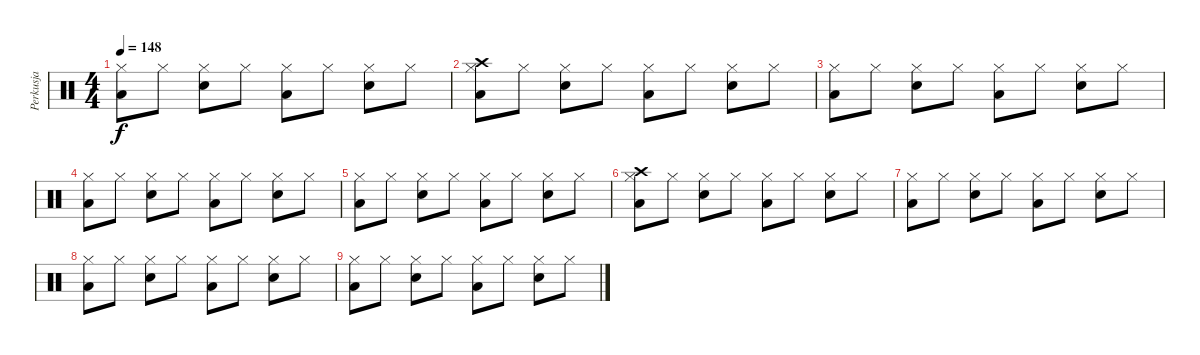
\track ("Perkusja" "Perkusja") {instrument percussion}
\staff {score}
\articulation defaults
\ts (4 4)
\tempo 148
\clef neutral
\ks c
("Low Tom (hit)" "Hi-Hat (closed)").8{dy f} "Hi-Hat (closed)".8 ("Electric Snare (hit)" "Hi-Hat (closed)").8 "Hi-Hat (closed)".8 ("Low Tom (hit)" "Hi-Hat (closed)").8 "Hi-Hat (closed)".8 ("Electric Snare (hit)" "Hi-Hat (closed)").8 "Hi-Hat (closed)".8 |
("Crash high (hit)" "Low Tom (hit)" "Hi-Hat (closed)").8 "Hi-Hat (closed)".8 ("Electric Snare (hit)" "Hi-Hat (closed)").8 "Hi-Hat (closed)".8 ("Low Tom (hit)" "Hi-Hat (closed)").8 "Hi-Hat (closed)".8 ("Electric Snare (hit)" "Hi-Hat (closed)").8 "Hi-Hat (closed)".8 |
("Low Tom (hit)" "Hi-Hat (closed)").8 "Hi-Hat (closed)".8 ("Electric Snare (hit)" "Hi-Hat (closed)").8 "Hi-Hat (closed)".8 ("Low Tom (hit)" "Hi-Hat (closed)").8 "Hi-Hat (closed)".8 ("Electric Snare (hit)" "Hi-Hat (closed)").8 "Hi-Hat (closed)".8 |
("Low Tom (hit)" "Hi-Hat (closed)").8 "Hi-Hat (closed)".8 ("Electric Snare (hit)" "Hi-Hat (closed)").8 "Hi-Hat (closed)".8 ("Low Tom (hit)" "Hi-Hat (closed)").8 "Hi-Hat (closed)".8 ("Electric Snare (hit)" "Hi-Hat (closed)").8 "Hi-Hat (closed)".8 |
("Low Tom (hit)" "Hi-Hat (closed)").8 "Hi-Hat (closed)".8 ("Electric Snare (hit)" "Hi-Hat (closed)").8 "Hi-Hat (closed)".8 ("Low Tom (hit)" "Hi-Hat (closed)").8 "Hi-Hat (closed)".8 ("Electric Snare (hit)" "Hi-Hat (closed)").8 "Hi-Hat (closed)".8 |
("Crash high (hit)" "Low Tom (hit)" "Hi-Hat (closed)").8 "Hi-Hat (closed)".8 ("Electric Snare (hit)" "Hi-Hat (closed)").8 "Hi-Hat (closed)".8 ("Low Tom (hit)" "Hi-Hat (closed)").8 "Hi-Hat (closed)".8 ("Electric Snare (hit)" "Hi-Hat (closed)").8 "Hi-Hat (closed)".8 |
("Low Tom (hit)" "Hi-Hat (closed)").8 "Hi-Hat (closed)".8 ("Electric Snare (hit)" "Hi-Hat (closed)").8 "Hi-Hat (closed)".8 ("Low Tom (hit)" "Hi-Hat (closed)").8 "Hi-Hat (closed)".8 ("Electric Snare (hit)" "Hi-Hat (closed)").8 "Hi-Hat (closed)".8 |
("Low Tom (hit)" "Hi-Hat (closed)").8 "Hi-Hat (closed)".8 ("Electric Snare (hit)" "Hi-Hat (closed)").8 "Hi-Hat (closed)".8 ("Low Tom (hit)" "Hi-Hat (closed)").8 "Hi-Hat (closed)".8 ("Electric Snare (hit)" "Hi-Hat (closed)").8 "Hi-Hat (closed)".8 |
("Low Tom (hit)" "Hi-Hat (closed)").8 "Hi-Hat (closed)".8 ("Electric Snare (hit)" "Hi-Hat (closed)").8 "Hi-Hat (closed)".8 ("Low Tom (hit)" "Hi-Hat (closed)").8 "Hi-Hat (closed)".8 ("Electric Snare (hit)" "Hi-Hat (closed)").8 "Hi-Hat (closed)".8
